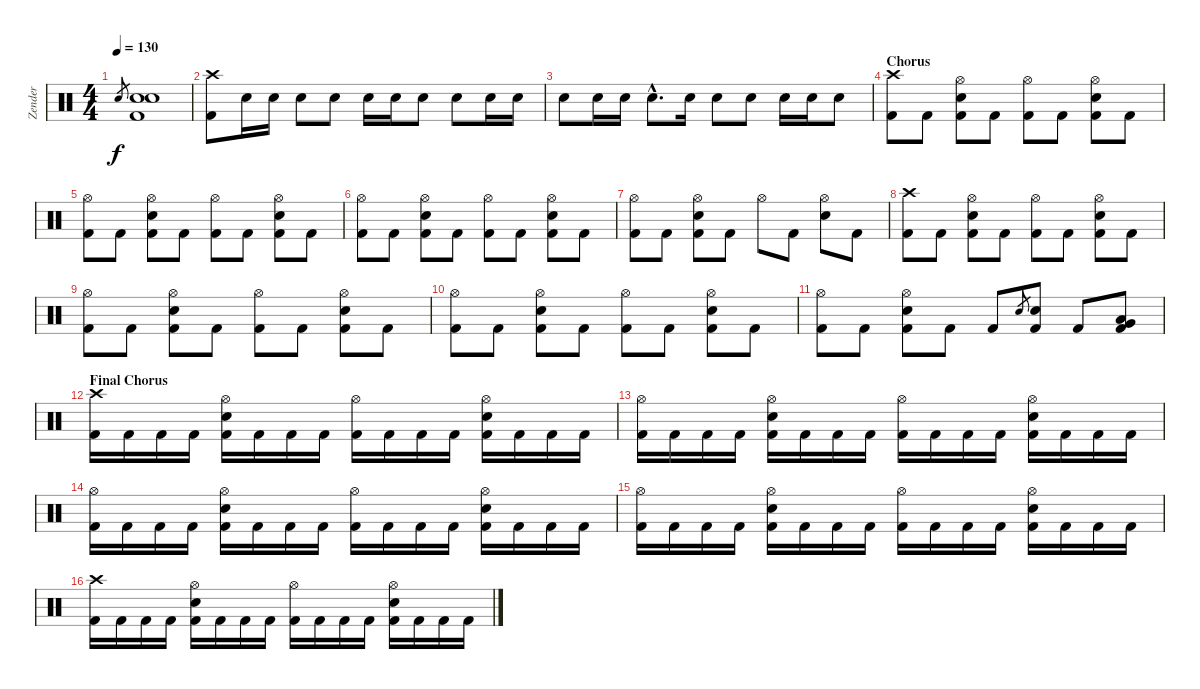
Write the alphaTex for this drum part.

\track ("Zender" "Zender") {instrument percussion}
\staff {score}
\articulation defaults
\ts (4 4)
\tempo 130
\clef neutral
\ks c "Electric Snare (hit)".8{gr dy f}
("Electric Snare (hit)" "Electric Snare (hit)" "Kick (hit) 2").1 |
("Crash high (hit)" "Kick (hit) 2").8 "Electric Snare (hit)".16 "Electric Snare (hit)".16 "Electric Snare (hit)".8 "Electric Snare (hit)".8 "Electric Snare (hit)".16 "Electric Snare (hit)".16 "Electric Snare (hit)".8 "Electric Snare (hit)".8 "Electric Snare (hit)".16 "Electric Snare (hit)".16 |
"Electric Snare (hit)".8 "Electric Snare (hit)".16 "Electric Snare (hit)".16 "Electric Snare (hit)"{hac}.8{d} "Electric Snare (hit)".16 "Electric Snare (hit)".8 "Electric Snare (hit)".8 "Electric Snare (hit)".16 "Electric Snare (hit)".16 "Electric Snare (hit)".8 |
\section ("" "Chorus")
("Crash high (hit)" "Kick (hit) 2").8 "Kick (hit) 2".8 ("Electric Snare (hit)" "Hi-Hat (open)" "Kick (hit) 2").8 "Kick (hit) 2".8 ("Hi-Hat (open)" "Kick (hit) 2").8 "Kick (hit) 2".8 ("Electric Snare (hit)" "Hi-Hat (open)" "Kick (hit) 2").8 "Kick (hit) 2".8 |
("Hi-Hat (open)" "Kick (hit) 2").8 "Kick (hit) 2".8 ("Electric Snare (hit)" "Hi-Hat (open)" "Kick (hit) 2").8 "Kick (hit) 2".8 ("Hi-Hat (open)" "Kick (hit) 2").8 "Kick (hit) 2".8 ("Electric Snare (hit)" "Hi-Hat (open)" "Kick (hit) 2").8 "Kick (hit) 2".8 |
("Hi-Hat (open)" "Kick (hit) 2").8 "Kick (hit) 2".8 ("Electric Snare (hit)" "Hi-Hat (open)" "Kick (hit) 2").8 "Kick (hit) 2".8 ("Hi-Hat (open)" "Kick (hit) 2").8 "Kick (hit) 2".8 ("Electric Snare (hit)" "Hi-Hat (open)" "Kick (hit) 2").8 "Kick (hit) 2".8 |
("Hi-Hat (open)" "Kick (hit) 2").8 "Kick (hit) 2".8 ("Electric Snare (hit)" "Hi-Hat (open)" "Kick (hit) 2").8 "Kick (hit) 2".8 "Hi-Hat (open)".8 "Kick (hit) 2".8 ("Electric Snare (hit)" "Hi-Hat (open)").8 "Kick (hit) 2".8 |
("Crash high (hit)" "Kick (hit) 2").8 "Kick (hit) 2".8 ("Electric Snare (hit)" "Hi-Hat (open)" "Kick (hit) 2").8 "Kick (hit) 2".8 ("Hi-Hat (open)" "Kick (hit) 2").8 "Kick (hit) 2".8 ("Electric Snare (hit)" "Hi-Hat (open)" "Kick (hit) 2").8 "Kick (hit) 2".8 |
("Hi-Hat (open)" "Kick (hit) 2").8 "Kick (hit) 2".8 ("Electric Snare (hit)" "Hi-Hat (open)" "Kick (hit) 2").8 "Kick (hit) 2".8 ("Hi-Hat (open)" "Kick (hit) 2").8 "Kick (hit) 2".8 ("Electric Snare (hit)" "Hi-Hat (open)" "Kick (hit) 2").8 "Kick (hit) 2".8 |
("Hi-Hat (open)" "Kick (hit) 2").8 "Kick (hit) 2".8 ("Electric Snare (hit)" "Hi-Hat (open)" "Kick (hit) 2").8 "Kick (hit) 2".8 ("Hi-Hat (open)" "Kick (hit) 2").8 "Kick (hit) 2".8 ("Electric Snare (hit)" "Hi-Hat (open)" "Kick (hit) 2").8 "Kick (hit) 2".8 |
("Hi-Hat (open)" "Kick (hit) 2").8 "Kick (hit) 2".8 ("Electric Snare (hit)" "Hi-Hat (open)" "Kick (hit) 2").8 "Kick (hit) 2".8 "Kick (hit) 2".8 "Electric Snare (hit)".8{gr} ("Electric Snare (hit)" "Kick (hit) 2").8 "Kick (hit) 2".8 ("Low Tom (hit)" "Very Low Tom (hit)" "Kick (hit) 2").8 |
\section ("" "Final Chorus")
("Crash high (hit)" "Kick (hit) 2").16 "Kick (hit) 2".16 "Kick (hit) 2".16 "Kick (hit) 2".16 ("Electric Snare (hit)" "Hi-Hat (open)" "Kick (hit) 2").16 "Kick (hit) 2".16 "Kick (hit) 2".16 "Kick (hit) 2".16 ("Hi-Hat (open)" "Kick (hit) 2").16 "Kick (hit) 2".16 "Kick (hit) 2".16 "Kick (hit) 2".16 ("Electric Snare (hit)" "Hi-Hat (open)" "Kick (hit) 2").16 "Kick (hit) 2".16 "Kick (hit) 2".16 "Kick (hit) 2".16 |
("Hi-Hat (open)" "Kick (hit) 2").16 "Kick (hit) 2".16 "Kick (hit) 2".16 "Kick (hit) 2".16 ("Electric Snare (hit)" "Hi-Hat (open)" "Kick (hit) 2").16 "Kick (hit) 2".16 "Kick (hit) 2".16 "Kick (hit) 2".16 ("Hi-Hat (open)" "Kick (hit) 2").16 "Kick (hit) 2".16 "Kick (hit) 2".16 "Kick (hit) 2".16 ("Electric Snare (hit)" "Hi-Hat (open)" "Kick (hit) 2").16 "Kick (hit) 2".16 "Kick (hit) 2".16 "Kick (hit) 2".16 |
("Hi-Hat (open)" "Kick (hit) 2").16 "Kick (hit) 2".16 "Kick (hit) 2".16 "Kick (hit) 2".16 ("Electric Snare (hit)" "Hi-Hat (open)" "Kick (hit) 2").16 "Kick (hit) 2".16 "Kick (hit) 2".16 "Kick (hit) 2".16 ("Hi-Hat (open)" "Kick (hit) 2").16 "Kick (hit) 2".16 "Kick (hit) 2".16 "Kick (hit) 2".16 ("Electric Snare (hit)" "Hi-Hat (open)" "Kick (hit) 2").16 "Kick (hit) 2".16 "Kick (hit) 2".16 "Kick (hit) 2".16 |
("Hi-Hat (open)" "Kick (hit) 2").16 "Kick (hit) 2".16 "Kick (hit) 2".16 "Kick (hit) 2".16 ("Electric Snare (hit)" "Hi-Hat (open)" "Kick (hit) 2").16 "Kick (hit) 2".16 "Kick (hit) 2".16 "Kick (hit) 2".16 ("Hi-Hat (open)" "Kick (hit) 2").16 "Kick (hit) 2".16 "Kick (hit) 2".16 "Kick (hit) 2".16 ("Electric Snare (hit)" "Hi-Hat (open)" "Kick (hit) 2").16 "Kick (hit) 2".16 "Kick (hit) 2".16 "Kick (hit) 2".16 |
("Crash high (hit)" "Kick (hit) 2").16 "Kick (hit) 2".16 "Kick (hit) 2".16 "Kick (hit) 2".16 ("Electric Snare (hit)" "Hi-Hat (open)" "Kick (hit) 2").16 "Kick (hit) 2".16 "Kick (hit) 2".16 "Kick (hit) 2".16 ("Hi-Hat (open)" "Kick (hit) 2").16 "Kick (hit) 2".16 "Kick (hit) 2".16 "Kick (hit) 2".16 ("Electric Snare (hit)" "Hi-Hat (open)" "Kick (hit) 2").16 "Kick (hit) 2".16 "Kick (hit) 2".16 "Kick (hit) 2".16
